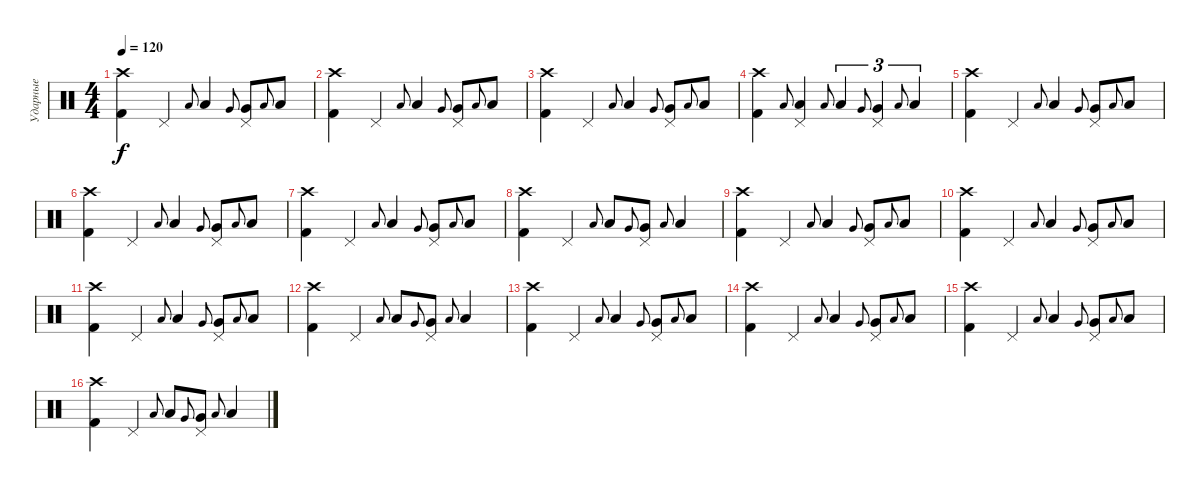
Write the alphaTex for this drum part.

\track ("Ударные" "Ударные") {instrument percussion}
\staff {score}
\articulation defaults
\ts (4 4)
\tempo 120
\clef neutral
\ks c
("Crash high (hit)" "Kick (hit) 2").4{dy f} "Pedal Hi-Hat (hit)".4 "Low Tom (hit)".8{gr onbeat} "Low Tom (hit)".4 "Very Low Tom (hit)".8{gr onbeat} ("Very Low Tom (hit)" "Pedal Hi-Hat (hit)").8 "Low Floor Tom (hit)".8{gr onbeat} "Low Floor Tom (hit)".8 |
("Crash high (hit)" "Kick (hit) 2").4 "Pedal Hi-Hat (hit)".4 "Low Tom (hit)".8{gr onbeat} "Low Tom (hit)".4 "Very Low Tom (hit)".8{gr onbeat} ("Very Low Tom (hit)" "Pedal Hi-Hat (hit)").8 "Low Floor Tom (hit)".8{gr onbeat} "Low Floor Tom (hit)".8 |
("Crash high (hit)" "Kick (hit) 2").4 "Pedal Hi-Hat (hit)".4 "Low Tom (hit)".8{gr onbeat} "Low Tom (hit)".4 "Very Low Tom (hit)".8{gr onbeat} ("Very Low Tom (hit)" "Pedal Hi-Hat (hit)").8 "Low Floor Tom (hit)".8{gr onbeat} "Low Floor Tom (hit)".8 |
("Crash high (hit)" "Kick (hit) 2").4 "Low Tom (hit)".8{gr onbeat} ("Low Tom (hit)" "Pedal Hi-Hat (hit)").4 "Low Tom (hit)".8{gr onbeat} "Low Tom (hit)".4{tu (3 2)} "Very Low Tom (hit)".8{gr onbeat} ("Very Low Tom (hit)" "Pedal Hi-Hat (hit)").4{tu (3 2)} "Low Floor Tom (hit)".8{gr onbeat} "Low Floor Tom (hit)".4{tu (3 2)} |
("Crash high (hit)" "Kick (hit) 2").4 "Pedal Hi-Hat (hit)".4 "Low Tom (hit)".8{gr onbeat} "Low Tom (hit)".4 "Very Low Tom (hit)".8{gr onbeat} ("Very Low Tom (hit)" "Pedal Hi-Hat (hit)").8 "Low Floor Tom (hit)".8{gr onbeat} "Low Floor Tom (hit)".8 |
("Crash high (hit)" "Kick (hit) 2").4 "Pedal Hi-Hat (hit)".4 "Low Tom (hit)".8{gr onbeat} "Low Tom (hit)".4 "Very Low Tom (hit)".8{gr onbeat} ("Very Low Tom (hit)" "Pedal Hi-Hat (hit)").8 "Low Floor Tom (hit)".8{gr onbeat} "Low Floor Tom (hit)".8 |
("Crash high (hit)" "Kick (hit) 2").4 "Pedal Hi-Hat (hit)".4 "Low Tom (hit)".8{gr onbeat} "Low Tom (hit)".4 "Very Low Tom (hit)".8{gr onbeat} ("Very Low Tom (hit)" "Pedal Hi-Hat (hit)").8 "Low Floor Tom (hit)".8{gr onbeat} "Low Floor Tom (hit)".8 |
("Crash high (hit)" "Kick (hit) 2").4 "Pedal Hi-Hat (hit)".4 "Low Tom (hit)".8{gr onbeat} "Low Tom (hit)".8 "Very Low Tom (hit)".8{gr onbeat} ("Very Low Tom (hit)" "Pedal Hi-Hat (hit)").8 "Low Floor Tom (hit)".8{gr onbeat} "Low Floor Tom (hit)".4 |
("Crash high (hit)" "Kick (hit) 2").4 "Pedal Hi-Hat (hit)".4 "Low Tom (hit)".8{gr onbeat} "Low Tom (hit)".4 "Very Low Tom (hit)".8{gr onbeat} ("Very Low Tom (hit)" "Pedal Hi-Hat (hit)").8 "Low Floor Tom (hit)".8{gr onbeat} "Low Floor Tom (hit)".8 |
("Crash high (hit)" "Kick (hit) 2").4 "Pedal Hi-Hat (hit)".4 "Low Tom (hit)".8{gr onbeat} "Low Tom (hit)".4 "Very Low Tom (hit)".8{gr onbeat} ("Very Low Tom (hit)" "Pedal Hi-Hat (hit)").8 "Low Floor Tom (hit)".8{gr onbeat} "Low Floor Tom (hit)".8 |
("Crash high (hit)" "Kick (hit) 2").4 "Pedal Hi-Hat (hit)".4 "Low Tom (hit)".8{gr onbeat} "Low Tom (hit)".4 "Very Low Tom (hit)".8{gr onbeat} ("Very Low Tom (hit)" "Pedal Hi-Hat (hit)").8 "Low Floor Tom (hit)".8{gr onbeat} "Low Floor Tom (hit)".8 |
("Crash high (hit)" "Kick (hit) 2").4 "Pedal Hi-Hat (hit)".4 "Low Tom (hit)".8{gr onbeat} "Low Tom (hit)".8 "Very Low Tom (hit)".8{gr onbeat} ("Very Low Tom (hit)" "Pedal Hi-Hat (hit)").8 "Low Floor Tom (hit)".8{gr onbeat} "Low Floor Tom (hit)".4 |
("Crash high (hit)" "Kick (hit) 2").4 "Pedal Hi-Hat (hit)".4 "Low Tom (hit)".8{gr onbeat} "Low Tom (hit)".4 "Very Low Tom (hit)".8{gr onbeat} ("Very Low Tom (hit)" "Pedal Hi-Hat (hit)").8 "Low Floor Tom (hit)".8{gr onbeat} "Low Floor Tom (hit)".8 |
("Crash high (hit)" "Kick (hit) 2").4 "Pedal Hi-Hat (hit)".4 "Low Tom (hit)".8{gr onbeat} "Low Tom (hit)".4 "Very Low Tom (hit)".8{gr onbeat} ("Very Low Tom (hit)" "Pedal Hi-Hat (hit)").8 "Low Floor Tom (hit)".8{gr onbeat} "Low Floor Tom (hit)".8 |
("Crash high (hit)" "Kick (hit) 2").4 "Pedal Hi-Hat (hit)".4 "Low Tom (hit)".8{gr onbeat} "Low Tom (hit)".4 "Very Low Tom (hit)".8{gr onbeat} ("Very Low Tom (hit)" "Pedal Hi-Hat (hit)").8 "Low Floor Tom (hit)".8{gr onbeat} "Low Floor Tom (hit)".8 |
("Crash high (hit)" "Kick (hit) 2").4 "Pedal Hi-Hat (hit)".4 "Low Tom (hit)".8{gr onbeat} "Low Tom (hit)".8 "Very Low Tom (hit)".8{gr onbeat} ("Very Low Tom (hit)" "Pedal Hi-Hat (hit)").8 "Low Floor Tom (hit)".8{gr onbeat} "Low Floor Tom (hit)".4
